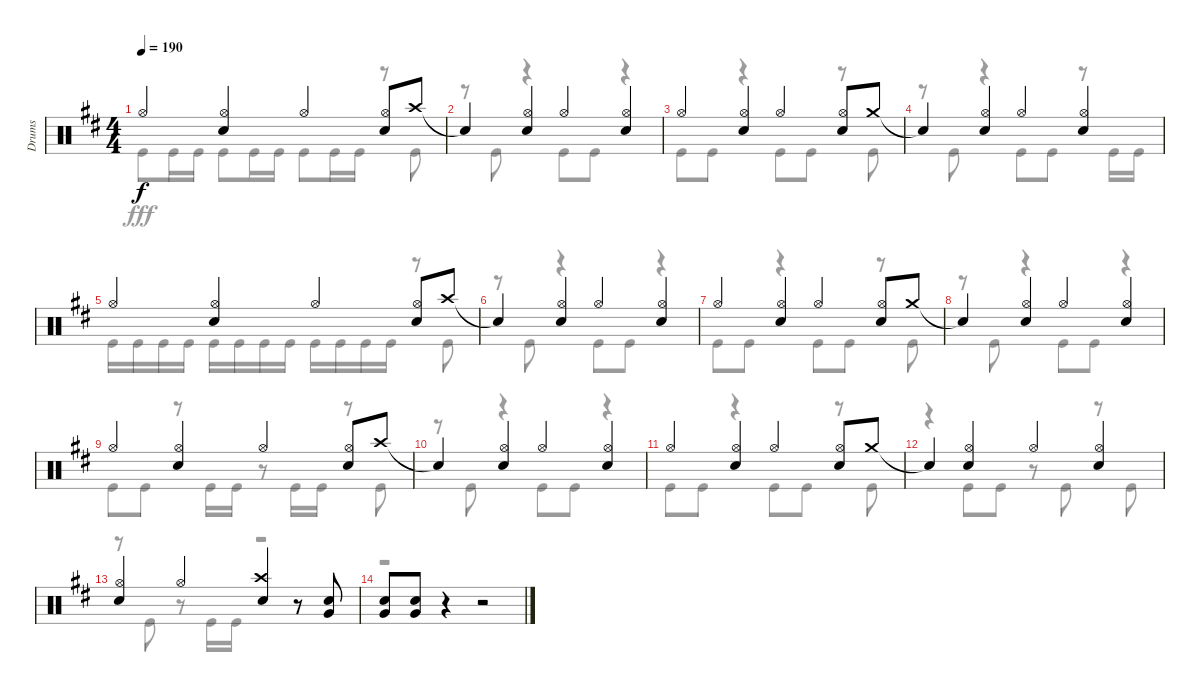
\track ("Drums" "Drums") {instrument percussion}
\staff {score}
\articulation defaults
\voice
\ts (4 4)
\tempo 190
\clef neutral
\ks d "Hi-Hat (open)".4{dy f}
("Hi-Hat (open)" "Snare (hit) 2").4 "Hi-Hat (open)".4 ("Hi-Hat (open)" "Snare (hit) 2").8 "Crash high (hit)".8 |
"Snare (hit)"{t}.4 ("Hi-Hat (open)" "Snare (hit) 2").4 "Hi-Hat (open)".4 ("Hi-Hat (open)" "Snare (hit) 2").4 |
"Hi-Hat (open)".4 ("Hi-Hat (open)" "Snare (hit) 2").4 "Hi-Hat (open)".4 ("Hi-Hat (open)" "Snare (hit) 2").8 "Crash medium (hit)".8 |
"Snare (hit)"{t}.4 ("Hi-Hat (open)" "Snare (hit) 2").4 "Hi-Hat (open)".4 ("Hi-Hat (open)" "Snare (hit) 2").4 |
"Hi-Hat (open)".4 ("Hi-Hat (open)" "Snare (hit) 2").4 "Hi-Hat (open)".4 ("Hi-Hat (open)" "Snare (hit) 2").8 "Crash high (hit)".8 |
"Snare (hit)"{t}.4 ("Hi-Hat (open)" "Snare (hit) 2").4 "Hi-Hat (open)".4 ("Hi-Hat (open)" "Snare (hit) 2").4 |
"Hi-Hat (open)".4 ("Hi-Hat (open)" "Snare (hit) 2").4 "Hi-Hat (open)".4 ("Hi-Hat (open)" "Snare (hit) 2").8 "Crash medium (hit)".8 |
"Snare (hit)"{t}.4 ("Hi-Hat (open)" "Snare (hit) 2").4 "Hi-Hat (open)".4 ("Hi-Hat (open)" "Snare (hit) 2").4 |
"Hi-Hat (open)".4 ("Hi-Hat (open)" "Snare (hit) 2").4 "Hi-Hat (open)".4 ("Hi-Hat (open)" "Snare (hit) 2").8 "Crash high (hit)".8 |
"Snare (hit)"{t}.4 ("Hi-Hat (open)" "Snare (hit) 2").4 "Hi-Hat (open)".4 ("Hi-Hat (open)" "Snare (hit) 2").4 |
"Hi-Hat (open)".4 ("Hi-Hat (open)" "Snare (hit) 2").4 "Hi-Hat (open)".4 ("Hi-Hat (open)" "Snare (hit) 2").8 "Crash medium (hit)".8 |
"Snare (hit)"{t}.4 ("Hi-Hat (open)" "Snare (hit) 2").4 "Hi-Hat (open)".4 ("Hi-Hat (open)" "Snare (hit) 2").4 |
("Hi-Hat (open)" "Snare (hit) 2").4 "Hi-Hat (open)".4 ("Crash high (hit)" "Snare (hit) 2").4 r.8 ("Snare (hit) 2" "Very Low Tom (hit)").8 |
("Snare (hit) 2" "Very Low Tom (hit)").8 ("Snare (hit) 2" "Very Low Tom (hit)").8 r.4 r.2
\voice
\clef neutral
\ottava regular
\simile none
\ks d "Kick (hit)".8{dy fff} "Kick (hit)".16 "Kick (hit)".16 "Kick (hit)".8 "Kick (hit)".16 "Kick (hit)".16 "Kick (hit)".8 "Kick (hit)".16 "Kick (hit)".16
r.8 "Kick (hit)".8 |
r.8 "Kick (hit)".8 r.4 "Kick (hit)".8 "Kick (hit)".8 r.4 |
"Kick (hit)".8 "Kick (hit)".8 r.4 "Kick (hit)".8 "Kick (hit)".8 r.8 "Kick (hit)".8 |
r.8 "Kick (hit)".8 r.4 "Kick (hit)".8 "Kick (hit)".8 r.8 "Kick (hit)".16 "Kick (hit)".16 |
"Kick (hit)".16 "Kick (hit)".16 "Kick (hit)".16 "Kick (hit)".16 "Kick (hit)".16 "Kick (hit)".16 "Kick (hit)".16 "Kick (hit)".16 "Kick (hit)".16 "Kick (hit)".16 "Kick (hit)".16 "Kick (hit)".16 r.8 "Kick (hit)".8 |
r.8 "Kick (hit)".8 r.4 "Kick (hit)".8 "Kick (hit)".8 r.4 |
"Kick (hit)".8 "Kick (hit)".8 r.4 "Kick (hit)".8 "Kick (hit)".8 r.8 "Kick (hit)".8 |
r.8 "Kick (hit)".8 r.4 "Kick (hit)".8 "Kick (hit)".8 r.4 |
"Kick (hit)".8 "Kick (hit)".8 r.8 "Kick (hit)".16 "Kick (hit)".16 r.8 "Kick (hit)".16 "Kick (hit)".16 r.8 "Kick (hit)".8 |
r.8 "Kick (hit)".8 r.4 "Kick (hit)".8 "Kick (hit)".8 r.4 |
"Kick (hit)".8 "Kick (hit)".8 r.4 "Kick (hit)".8 "Kick (hit)".8 r.8 "Kick (hit)".8 |
r.4 "Kick (hit)".8 "Kick (hit)".8 r.8 "Kick (hit)".8 r.8 "Kick (hit)".8 |
r.8 "Kick (hit)".8 r.8 "Kick (hit)".16 "Kick (hit)".16 r.2 |
r.1
